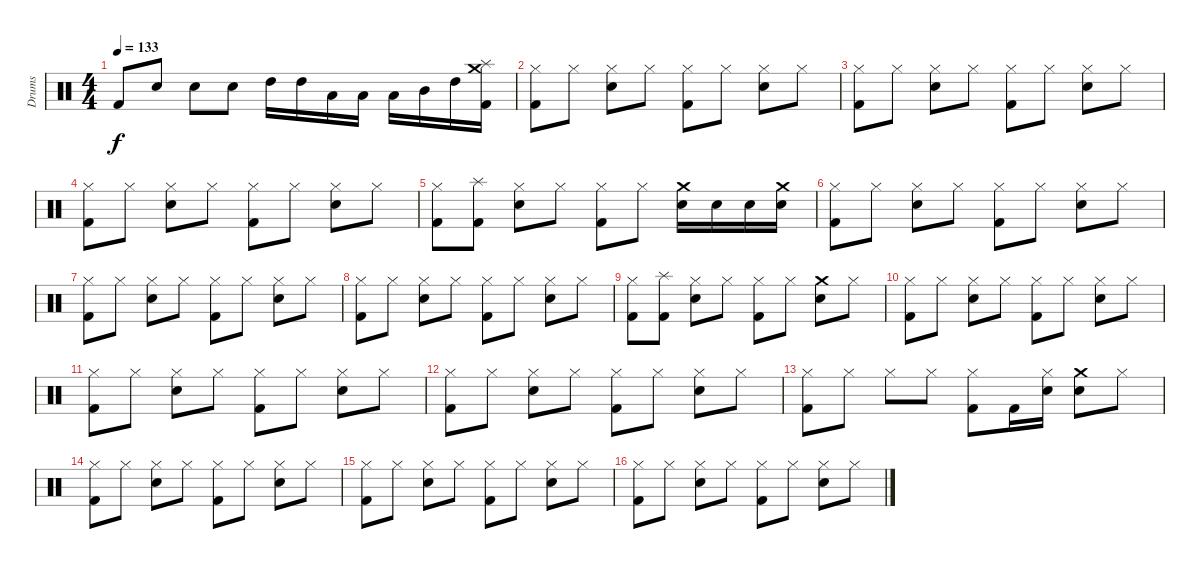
\track ("Drums" "Drums") {instrument percussion}
\staff {score}
\articulation defaults
\ts (4 4)
\tempo 133
\clef neutral
\ks c "Kick (hit) 2".8{dy f} "Snare (hit) 2".8 "Snare (hit) 2".8 "Snare (hit) 2".8 "High Tom (hit)".16 "High Tom (hit)".16 "Low Tom (hit)".16 "Low Tom (hit)".16 "Low Tom (hit)".16 "Mid Tom (hit)".16 "High Tom (hit)".16
("Kick (hit) 2" "Splash (hit)" "Crash medium (hit)").16 |
("Kick (hit) 2" "Hi-Hat (closed)").8 "Hi-Hat (closed)".8 ("Snare (hit) 2" "Hi-Hat (closed)").8 "Hi-Hat (closed)".8 ("Kick (hit) 2" "Hi-Hat (closed)").8 "Hi-Hat (closed)".8 ("Snare (hit) 2" "Hi-Hat (closed)").8 "Hi-Hat (closed)".8 |
("Kick (hit) 2" "Hi-Hat (closed)").8 "Hi-Hat (closed)".8 ("Snare (hit) 2" "Hi-Hat (closed)").8 "Hi-Hat (closed)".8 ("Kick (hit) 2" "Hi-Hat (closed)").8 "Hi-Hat (closed)".8 ("Snare (hit) 2" "Hi-Hat (closed)").8 "Hi-Hat (closed)".8 |
("Kick (hit) 2" "Hi-Hat (closed)").8 "Hi-Hat (closed)".8 ("Snare (hit) 2" "Hi-Hat (closed)").8 "Hi-Hat (closed)".8 ("Kick (hit) 2" "Hi-Hat (closed)").8 "Hi-Hat (closed)".8 ("Snare (hit) 2" "Hi-Hat (closed)").8 "Hi-Hat (closed)".8 |
("Kick (hit) 2" "Hi-Hat (closed)").8 ("Kick (hit) 2" "Splash (hit)").8 ("Snare (hit) 2" "Hi-Hat (closed)").8 "Hi-Hat (closed)".8 ("Kick (hit) 2" "Hi-Hat (closed)").8 "Hi-Hat (closed)".8 ("Snare (hit) 2" "Crash medium (hit)").16 "Snare (hit) 2".16 "Snare (hit) 2".16 ("Snare (hit) 2" "Crash medium (hit)").16 |
("Kick (hit) 2" "Hi-Hat (closed)").8 "Hi-Hat (closed)".8 ("Snare (hit) 2" "Hi-Hat (closed)").8 "Hi-Hat (closed)".8 ("Kick (hit) 2" "Hi-Hat (closed)").8 "Hi-Hat (closed)".8 ("Snare (hit) 2" "Hi-Hat (closed)").8 "Hi-Hat (closed)".8 |
("Kick (hit) 2" "Hi-Hat (closed)").8 "Hi-Hat (closed)".8 ("Snare (hit) 2" "Hi-Hat (closed)").8 "Hi-Hat (closed)".8 ("Kick (hit) 2" "Hi-Hat (closed)").8 "Hi-Hat (closed)".8 ("Snare (hit) 2" "Hi-Hat (closed)").8 "Hi-Hat (closed)".8 |
("Kick (hit) 2" "Hi-Hat (closed)").8 "Hi-Hat (closed)".8 ("Snare (hit) 2" "Hi-Hat (closed)").8 "Hi-Hat (closed)".8 ("Kick (hit) 2" "Hi-Hat (closed)").8 "Hi-Hat (closed)".8 ("Snare (hit) 2" "Hi-Hat (closed)").8 "Hi-Hat (closed)".8 |
("Kick (hit) 2" "Hi-Hat (closed)").8 ("Kick (hit) 2" "Splash (hit)").8 ("Snare (hit) 2" "Hi-Hat (closed)").8 "Hi-Hat (closed)".8 ("Kick (hit) 2" "Hi-Hat (closed)").8 "Hi-Hat (closed)".8 ("Snare (hit) 2" "Crash medium (hit)").8 "Hi-Hat (closed)".8 |
("Kick (hit) 2" "Hi-Hat (closed)").8 "Hi-Hat (closed)".8 ("Snare (hit) 2" "Hi-Hat (closed)").8 "Hi-Hat (closed)".8 ("Kick (hit) 2" "Hi-Hat (closed)").8 "Hi-Hat (closed)".8 ("Snare (hit) 2" "Hi-Hat (closed)").8 "Hi-Hat (closed)".8 |
("Kick (hit) 2" "Hi-Hat (closed)").8 "Hi-Hat (closed)".8 ("Snare (hit) 2" "Hi-Hat (closed)").8 "Hi-Hat (closed)".8 ("Kick (hit) 2" "Hi-Hat (closed)").8 "Hi-Hat (closed)".8 ("Snare (hit) 2" "Hi-Hat (closed)").8 "Hi-Hat (closed)".8 |
("Kick (hit) 2" "Hi-Hat (closed)").8 "Hi-Hat (closed)".8 ("Snare (hit) 2" "Hi-Hat (closed)").8 "Hi-Hat (closed)".8 ("Kick (hit) 2" "Hi-Hat (closed)").8 "Hi-Hat (closed)".8 ("Snare (hit) 2" "Hi-Hat (closed)").8 "Hi-Hat (closed)".8 |
("Kick (hit) 2" "Hi-Hat (closed)").8 "Hi-Hat (closed)".8 "Hi-Hat (closed)".8 "Hi-Hat (closed)".8 ("Kick (hit) 2" "Hi-Hat (closed)").8 "Kick (hit) 2".16 ("Snare (hit) 2" "Hi-Hat (closed)").16 ("Snare (hit) 2" "Crash medium (hit)").8 "Hi-Hat (closed)".8 |
("Kick (hit) 2" "Hi-Hat (closed)").8 "Hi-Hat (closed)".8 ("Snare (hit) 2" "Hi-Hat (closed)").8 "Hi-Hat (closed)".8 ("Kick (hit) 2" "Hi-Hat (closed)").8 "Hi-Hat (closed)".8 ("Snare (hit) 2" "Hi-Hat (closed)").8 "Hi-Hat (closed)".8 |
("Kick (hit) 2" "Hi-Hat (closed)").8 "Hi-Hat (closed)".8 ("Snare (hit) 2" "Hi-Hat (closed)").8 "Hi-Hat (closed)".8 ("Kick (hit) 2" "Hi-Hat (closed)").8 "Hi-Hat (closed)".8 ("Snare (hit) 2" "Hi-Hat (closed)").8 "Hi-Hat (closed)".8 |
("Kick (hit) 2" "Hi-Hat (closed)").8 "Hi-Hat (closed)".8 ("Snare (hit) 2" "Hi-Hat (closed)").8 "Hi-Hat (closed)".8 ("Kick (hit) 2" "Hi-Hat (closed)").8 "Hi-Hat (closed)".8 ("Snare (hit) 2" "Hi-Hat (closed)").8 "Hi-Hat (closed)".8
